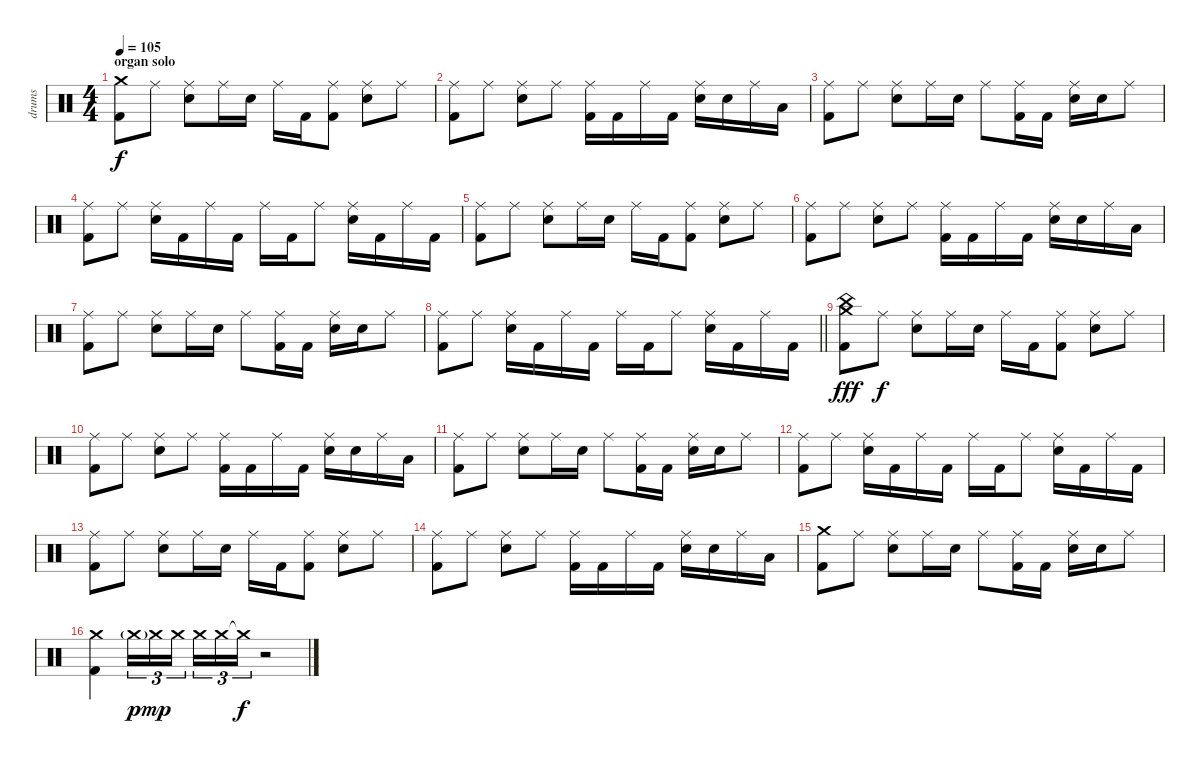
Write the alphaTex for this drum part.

\track ("drums" "drums") {instrument percussion}
\staff {score}
\articulation defaults
\ts (4 4)
\section ("" "organ solo")
\tempo 105
\clef neutral
\ks c
("Crash medium (hit)" "Kick (hit) 2").8{dy f} "Ride (middle)".8 ("Ride (middle)" "Snare (hit) 2").8 "Ride (middle)".16 "Snare (hit) 2".16 "Ride (middle)".16 "Kick (hit) 2".16 ("Ride (middle)" "Kick (hit) 2").8 ("Ride (middle)" "Snare (hit) 2").8 "Ride (middle)".8 |
("Ride (middle)" "Kick (hit) 2").8 "Ride (middle)".8 ("Ride (middle)" "Snare (hit) 2").8 "Ride (middle)".8 ("Ride (middle)" "Kick (hit) 2").16 "Kick (hit) 2".16 "Ride (middle)".16 "Kick (hit) 2".16 ("Ride (middle)" "Snare (hit) 2").16 "Snare (hit) 2".16 "Ride (middle)".16 "Low Tom (hit)".16 |
("Ride (middle)" "Kick (hit) 2").8 "Ride (middle)".8 ("Ride (middle)" "Snare (hit) 2").8 "Ride (middle)".16 "Snare (hit) 2".16 "Ride (middle)".8 ("Ride (middle)" "Kick (hit) 2").16 "Kick (hit) 2".16 ("Ride (middle)" "Snare (hit) 2").16 "Snare (hit) 2".16 "Ride (middle)".8 |
("Ride (middle)" "Kick (hit) 2").8 "Ride (middle)".8 ("Ride (middle)" "Snare (hit) 2").16 "Kick (hit) 2".16 "Ride (middle)".16 "Kick (hit) 2".16 "Ride (middle)".16 "Kick (hit) 2".16 "Ride (middle)".8 ("Ride (middle)" "Snare (hit) 2").16 "Kick (hit) 2".16 "Ride (middle)".16 "Kick (hit) 2".16 |
("Ride (middle)" "Kick (hit) 2").8 "Ride (middle)".8 ("Ride (middle)" "Snare (hit) 2").8 "Ride (middle)".16 "Snare (hit) 2".16 "Ride (middle)".16 "Kick (hit) 2".16 ("Ride (middle)" "Kick (hit) 2").8 ("Ride (middle)" "Snare (hit) 2").8 "Ride (middle)".8 |
("Ride (middle)" "Kick (hit) 2").8 "Ride (middle)".8 ("Ride (middle)" "Snare (hit) 2").8 "Ride (middle)".8 ("Ride (middle)" "Kick (hit) 2").16 "Kick (hit) 2".16 "Ride (middle)".16 "Kick (hit) 2".16 ("Ride (middle)" "Snare (hit) 2").16 "Snare (hit) 2".16 "Ride (middle)".16 "Low Tom (hit)".16 |
("Ride (middle)" "Kick (hit) 2").8 "Ride (middle)".8 ("Ride (middle)" "Snare (hit) 2").8 "Ride (middle)".16 "Snare (hit) 2".16 "Ride (middle)".8 ("Ride (middle)" "Kick (hit) 2").16 "Kick (hit) 2".16 ("Ride (middle)" "Snare (hit) 2").16 "Snare (hit) 2".16 "Ride (middle)".8 |
\barLineRight lightlight
("Ride (middle)" "Kick (hit) 2").8 "Ride (middle)".8 ("Ride (middle)" "Snare (hit) 2").16 "Kick (hit) 2".16 "Ride (middle)".16 "Kick (hit) 2".16 "Ride (middle)".16 "Kick (hit) 2".16 "Ride (middle)".8 ("Ride (middle)" "Snare (hit) 2").16 "Kick (hit) 2".16 "Ride (middle)".16 "Kick (hit) 2".16 |
("China (hit)" "Crash medium (hit)" "Kick (hit) 2").8{dy fff} "Ride (middle)".8{dy f} ("Ride (middle)" "Snare (hit) 2").8 "Ride (middle)".16 "Snare (hit) 2".16 "Ride (middle)".16 "Kick (hit) 2".16 ("Ride (middle)" "Kick (hit) 2").8 ("Ride (middle)" "Snare (hit) 2").8 "Ride (middle)".8 |
("Ride (middle)" "Kick (hit) 2").8 "Ride (middle)".8 ("Ride (middle)" "Snare (hit) 2").8 "Ride (middle)".8 ("Ride (middle)" "Kick (hit) 2").16 "Kick (hit) 2".16 "Ride (middle)".16 "Kick (hit) 2".16 ("Ride (middle)" "Snare (hit) 2").16 "Snare (hit) 2".16 "Ride (middle)".16 "Low Tom (hit)".16 |
("Ride (middle)" "Kick (hit) 2").8 "Ride (middle)".8 ("Ride (middle)" "Snare (hit) 2").8 "Ride (middle)".16 "Snare (hit) 2".16 "Ride (middle)".8 ("Ride (middle)" "Kick (hit) 2").16 "Kick (hit) 2".16 ("Ride (middle)" "Snare (hit) 2").16 "Snare (hit) 2".16 "Ride (middle)".8 |
("Ride (middle)" "Kick (hit) 2").8 "Ride (middle)".8 ("Ride (middle)" "Snare (hit) 2").16 "Kick (hit) 2".16 "Ride (middle)".16 "Kick (hit) 2".16 "Ride (middle)".16 "Kick (hit) 2".16 "Ride (middle)".8 ("Ride (middle)" "Snare (hit) 2").16 "Kick (hit) 2".16 "Ride (middle)".16 "Kick (hit) 2".16 |
("Ride (middle)" "Kick (hit) 2").8 "Ride (middle)".8 ("Ride (middle)" "Snare (hit) 2").8 "Ride (middle)".16 "Snare (hit) 2".16 "Ride (middle)".16 "Kick (hit) 2".16 ("Ride (middle)" "Kick (hit) 2").8 ("Ride (middle)" "Snare (hit) 2").8 "Ride (middle)".8 |
("Ride (middle)" "Kick (hit) 2").8 "Ride (middle)".8 ("Ride (middle)" "Snare (hit) 2").8 "Ride (middle)".8 ("Ride (middle)" "Kick (hit) 2").16 "Kick (hit) 2".16 "Ride (middle)".16 "Kick (hit) 2".16 ("Ride (middle)" "Snare (hit) 2").16 "Snare (hit) 2".16 "Ride (middle)".16 "Low Tom (hit)".16 |
("Crash medium (hit)" "Kick (hit) 2").8 "Ride (middle)".8 ("Ride (middle)" "Snare (hit) 2").8 "Ride (middle)".16 "Snare (hit) 2".16 "Ride (middle)".8 ("Ride (middle)" "Kick (hit) 2").16 "Kick (hit) 2".16 ("Ride (middle)" "Snare (hit) 2").16 "Snare (hit) 2".16 "Ride (middle)".8 |
("Crash medium (hit)" "Kick (hit) 2").4 "Crash medium (hit)"{g}.16{tu (3 2) dy p} "Crash medium (hit)".16{tu (3 2) dy mp} "Crash medium (hit)".16{tu (3 2)} "Crash medium (hit)".16{tu (3 2)} "Crash medium (hit)".16{tu (3 2)} "Crash medium (hit)"{t}.16{tu (3 2) dy f} r.2
